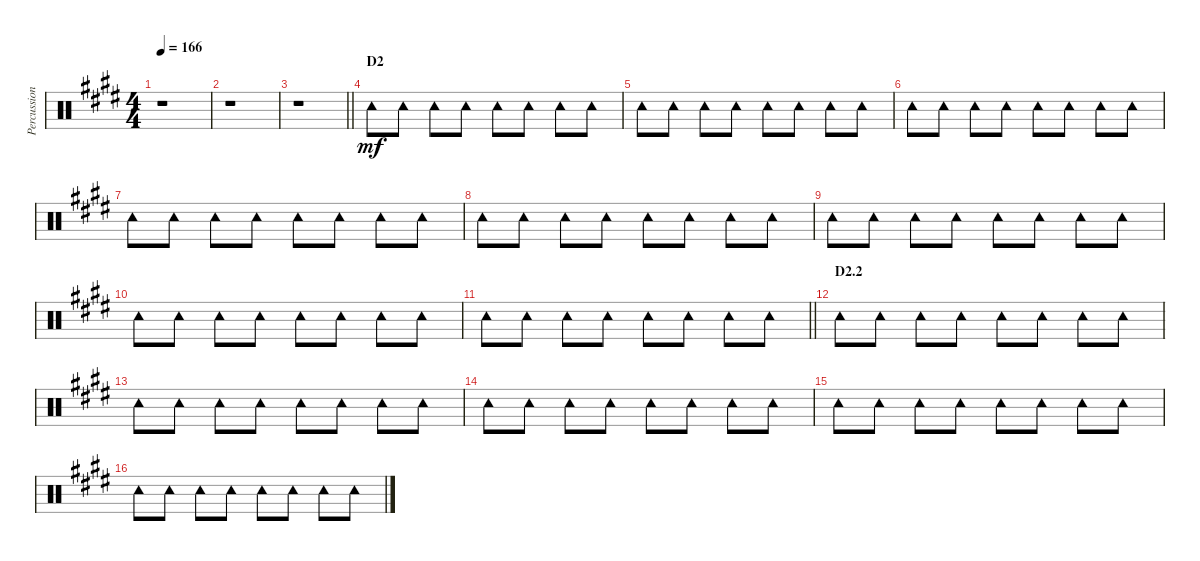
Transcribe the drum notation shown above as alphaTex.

\track ("Percussion" "Percussion") {instrument percussion}
\staff {score}
\articulation defaults
\ts (4 4)
\tempo 166
\clef neutral
\ks e
r.1{dy mf} |
r.1 |
\barLineRight lightlight
r.1 |
\section ("" "D2")
"Tambourine (hit)".8 "Tambourine (hit)".8 "Tambourine (hit)".8 "Tambourine (hit)".8 "Tambourine (hit)".8 "Tambourine (hit)".8 "Tambourine (hit)".8 "Tambourine (hit)".8 |
"Tambourine (hit)".8 "Tambourine (hit)".8 "Tambourine (hit)".8 "Tambourine (hit)".8 "Tambourine (hit)".8 "Tambourine (hit)".8 "Tambourine (hit)".8 "Tambourine (hit)".8 |
"Tambourine (hit)".8 "Tambourine (hit)".8 "Tambourine (hit)".8 "Tambourine (hit)".8 "Tambourine (hit)".8 "Tambourine (hit)".8 "Tambourine (hit)".8 "Tambourine (hit)".8 |
"Tambourine (hit)".8 "Tambourine (hit)".8 "Tambourine (hit)".8 "Tambourine (hit)".8 "Tambourine (hit)".8 "Tambourine (hit)".8 "Tambourine (hit)".8 "Tambourine (hit)".8 |
"Tambourine (hit)".8 "Tambourine (hit)".8 "Tambourine (hit)".8 "Tambourine (hit)".8 "Tambourine (hit)".8 "Tambourine (hit)".8 "Tambourine (hit)".8 "Tambourine (hit)".8 |
"Tambourine (hit)".8 "Tambourine (hit)".8 "Tambourine (hit)".8 "Tambourine (hit)".8 "Tambourine (hit)".8 "Tambourine (hit)".8 "Tambourine (hit)".8 "Tambourine (hit)".8 |
"Tambourine (hit)".8 "Tambourine (hit)".8 "Tambourine (hit)".8 "Tambourine (hit)".8 "Tambourine (hit)".8 "Tambourine (hit)".8 "Tambourine (hit)".8 "Tambourine (hit)".8 |
\barLineRight lightlight "Tambourine (hit)".8 "Tambourine (hit)".8 "Tambourine (hit)".8 "Tambourine (hit)".8 "Tambourine (hit)".8 "Tambourine (hit)".8 "Tambourine (hit)".8 "Tambourine (hit)".8
|
\section ("" "D2.2")
"Tambourine (hit)".8 "Tambourine (hit)".8 "Tambourine (hit)".8 "Tambourine (hit)".8 "Tambourine (hit)".8 "Tambourine (hit)".8 "Tambourine (hit)".8 "Tambourine (hit)".8 |
"Tambourine (hit)".8 "Tambourine (hit)".8 "Tambourine (hit)".8 "Tambourine (hit)".8 "Tambourine (hit)".8 "Tambourine (hit)".8 "Tambourine (hit)".8 "Tambourine (hit)".8 |
"Tambourine (hit)".8 "Tambourine (hit)".8 "Tambourine (hit)".8 "Tambourine (hit)".8 "Tambourine (hit)".8 "Tambourine (hit)".8 "Tambourine (hit)".8 "Tambourine (hit)".8 |
"Tambourine (hit)".8 "Tambourine (hit)".8 "Tambourine (hit)".8 "Tambourine (hit)".8 "Tambourine (hit)".8 "Tambourine (hit)".8 "Tambourine (hit)".8 "Tambourine (hit)".8 |
"Tambourine (hit)".8 "Tambourine (hit)".8 "Tambourine (hit)".8 "Tambourine (hit)".8 "Tambourine (hit)".8 "Tambourine (hit)".8 "Tambourine (hit)".8 "Tambourine (hit)".8
